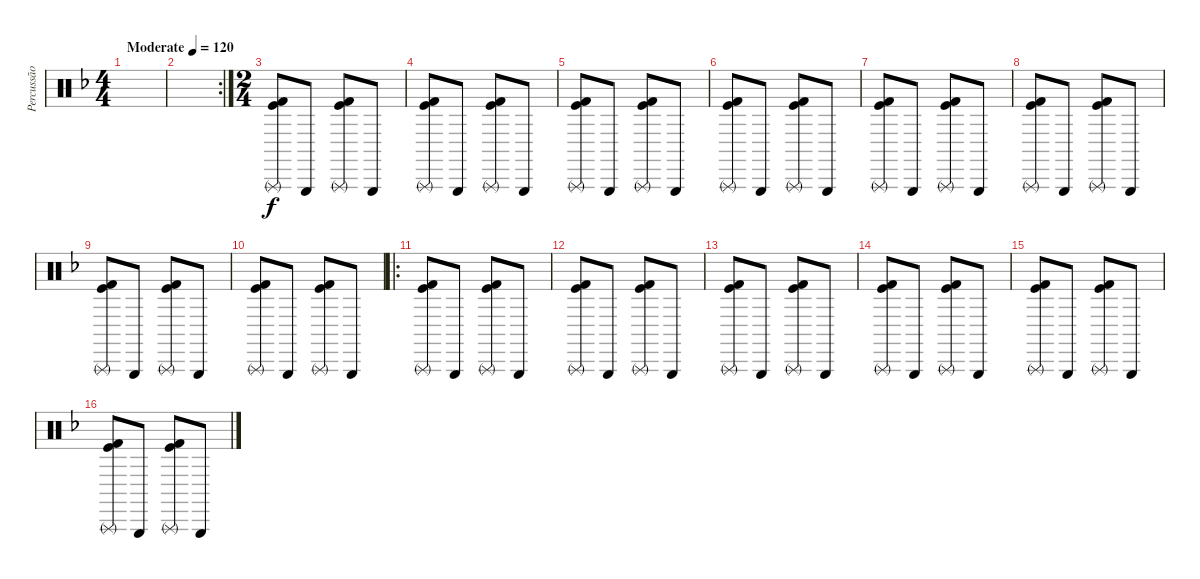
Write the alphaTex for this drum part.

\track ("Percussão" "Percussão") {instrument percussion bank 1}
\staff {score}
\articulation defaults
\ts (4 4)
\tempo (120 "Moderate")
\clef neutral
\ks f
|
\rc 2
|
\ts (2 4)
("Kick (hit) 2" "Kick (hit)" "Triangle (rnute)").8 "Triangle (hit)".8 ("Kick (hit) 2" "Kick (hit)" "Triangle (rnute)").8 "Triangle (hit)".8 |
("Kick (hit) 2" "Kick (hit)" "Triangle (rnute)").8 "Triangle (hit)".8 ("Kick (hit) 2" "Kick (hit)" "Triangle (rnute)").8 "Triangle (hit)".8 |
("Kick (hit) 2" "Kick (hit)" "Triangle (rnute)").8 "Triangle (hit)".8 ("Kick (hit) 2" "Kick (hit)" "Triangle (rnute)").8 "Triangle (hit)".8 |
("Kick (hit) 2" "Kick (hit)" "Triangle (rnute)").8 "Triangle (hit)".8 ("Kick (hit) 2" "Kick (hit)" "Triangle (rnute)").8 "Triangle (hit)".8 |
("Kick (hit) 2" "Kick (hit)" "Triangle (rnute)").8 "Triangle (hit)".8 ("Kick (hit) 2" "Kick (hit)" "Triangle (rnute)").8 "Triangle (hit)".8 |
("Kick (hit) 2" "Kick (hit)" "Triangle (rnute)").8 "Triangle (hit)".8 ("Kick (hit) 2" "Kick (hit)" "Triangle (rnute)").8 "Triangle (hit)".8 |
("Kick (hit) 2" "Kick (hit)" "Triangle (rnute)").8 "Triangle (hit)".8 ("Kick (hit) 2" "Kick (hit)" "Triangle (rnute)").8 "Triangle (hit)".8 |
("Kick (hit) 2" "Kick (hit)" "Triangle (rnute)").8 "Triangle (hit)".8 ("Kick (hit) 2" "Kick (hit)" "Triangle (rnute)").8 "Triangle (hit)".8 |
\ro
("Kick (hit) 2" "Kick (hit)" "Triangle (rnute)").8 "Triangle (hit)".8 ("Kick (hit) 2" "Kick (hit)" "Triangle (rnute)").8 "Triangle (hit)".8 |
("Kick (hit) 2" "Kick (hit)" "Triangle (rnute)").8 "Triangle (hit)".8 ("Kick (hit) 2" "Kick (hit)" "Triangle (rnute)").8 "Triangle (hit)".8 |
("Kick (hit) 2" "Kick (hit)" "Triangle (rnute)").8 "Triangle (hit)".8 ("Kick (hit) 2" "Kick (hit)" "Triangle (rnute)").8 "Triangle (hit)".8 |
("Kick (hit) 2" "Kick (hit)" "Triangle (rnute)").8 "Triangle (hit)".8 ("Kick (hit) 2" "Kick (hit)" "Triangle (rnute)").8 "Triangle (hit)".8 |
("Kick (hit) 2" "Kick (hit)" "Triangle (rnute)").8 "Triangle (hit)".8 ("Kick (hit) 2" "Kick (hit)" "Triangle (rnute)").8 "Triangle (hit)".8 |
("Kick (hit) 2" "Kick (hit)" "Triangle (rnute)").8 "Triangle (hit)".8 ("Kick (hit) 2" "Kick (hit)" "Triangle (rnute)").8 "Triangle (hit)".8
